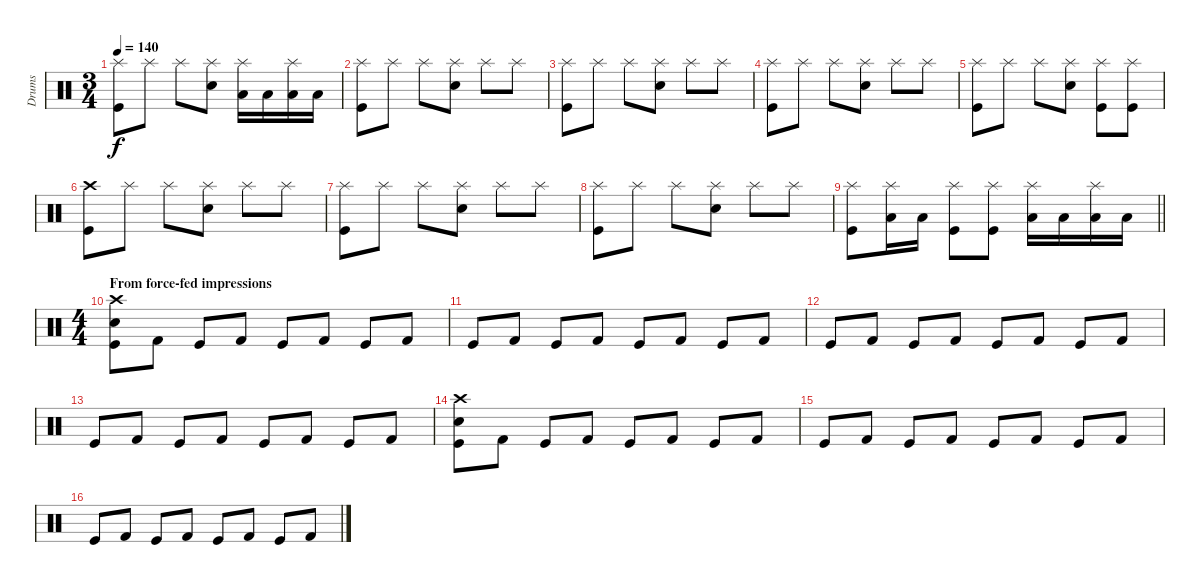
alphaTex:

\track ("Drums" "Drums") {instrument percussion}
\staff {score}
\articulation defaults
\ts (3 4)
\tempo 140
\clef neutral
\ks c
("Kick (hit)" "Splash (hit)").8{dy f} "Splash (hit)".8 "Splash (hit)".8 ("Snare (hit) 2" "Splash (hit)").8 ("Low Tom (hit)" "Splash (hit)").16 "Low Tom (hit)".16 ("Low Tom (hit)" "Splash (hit)").16 "Low Tom (hit)".16 |
("Kick (hit)" "Splash (hit)").8 "Splash (hit)".8 "Splash (hit)".8 ("Snare (hit) 2" "Splash (hit)").8 "Splash (hit)".8 "Splash (hit)".8 |
("Kick (hit)" "Splash (hit)").8 "Splash (hit)".8 "Splash (hit)".8 ("Snare (hit) 2" "Splash (hit)").8 "Splash (hit)".8 "Splash (hit)".8 |
("Kick (hit)" "Splash (hit)").8 "Splash (hit)".8 "Splash (hit)".8 ("Snare (hit) 2" "Splash (hit)").8 "Splash (hit)".8 "Splash (hit)".8 |
("Kick (hit)" "Splash (hit)").8 "Splash (hit)".8 "Splash (hit)".8 ("Snare (hit) 2" "Splash (hit)").8 ("Kick (hit)" "Splash (hit)").8 ("Kick (hit)" "Splash (hit)").8 |
("Kick (hit)" "Crash high (hit)").8 "Splash (hit)".8 "Splash (hit)".8 ("Snare (hit) 2" "Splash (hit)").8 "Splash (hit)".8 "Splash (hit)".8 |
("Kick (hit)" "Splash (hit)").8 "Splash (hit)".8 "Splash (hit)".8 ("Snare (hit) 2" "Splash (hit)").8 "Splash (hit)".8 "Splash (hit)".8 |
("Kick (hit)" "Splash (hit)").8 "Splash (hit)".8 "Splash (hit)".8 ("Snare (hit) 2" "Splash (hit)").8 "Splash (hit)".8 "Splash (hit)".8 |
\barLineRight lightlight
("Kick (hit)" "Splash (hit)").8 ("Low Tom (hit)" "Splash (hit)").16 "Low Tom (hit)".16 ("Kick (hit)" "Splash (hit)").8 ("Kick (hit)" "Splash (hit)").8 ("Low Tom (hit)" "Splash (hit)").16 "Low Tom (hit)".16 ("Low Tom (hit)" "Splash (hit)").16 "Low Tom (hit)".16 |
\ts (4 4)
\section ("" "From force-fed impressions")
("Kick (hit)" "Snare (hit) 2" "Crash high (hit)").8 "Kick (hit) 2".8 "Kick (hit)".8 "Kick (hit) 2".8 "Kick (hit)".8 "Kick (hit) 2".8 "Kick (hit)".8 "Kick (hit) 2".8 |
"Kick (hit)".8 "Kick (hit) 2".8 "Kick (hit)".8 "Kick (hit) 2".8 "Kick (hit)".8 "Kick (hit) 2".8 "Kick (hit)".8 "Kick (hit) 2".8 |
"Kick (hit)".8 "Kick (hit) 2".8 "Kick (hit)".8 "Kick (hit) 2".8 "Kick (hit)".8 "Kick (hit) 2".8 "Kick (hit)".8 "Kick (hit) 2".8 |
"Kick (hit)".8 "Kick (hit) 2".8 "Kick (hit)".8 "Kick (hit) 2".8 "Kick (hit)".8 "Kick (hit) 2".8 "Kick (hit)".8 "Kick (hit) 2".8 |
("Kick (hit)" "Snare (hit) 2" "Crash high (hit)").8 "Kick (hit) 2".8 "Kick (hit)".8 "Kick (hit) 2".8 "Kick (hit)".8 "Kick (hit) 2".8 "Kick (hit)".8 "Kick (hit) 2".8 |
"Kick (hit)".8 "Kick (hit) 2".8 "Kick (hit)".8 "Kick (hit) 2".8 "Kick (hit)".8 "Kick (hit) 2".8 "Kick (hit)".8 "Kick (hit) 2".8 |
"Kick (hit)".8 "Kick (hit) 2".8 "Kick (hit)".8 "Kick (hit) 2".8 "Kick (hit)".8 "Kick (hit) 2".8 "Kick (hit)".8 "Kick (hit) 2".8
